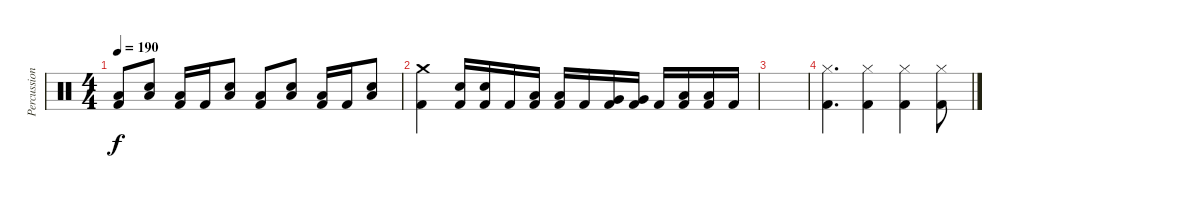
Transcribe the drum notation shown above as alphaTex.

\track ("Percussion" "Percussion") {instrument percussion}
\staff {score}
\articulation defaults
\ts (4 4)
\tempo 190
\clef neutral
\ks c
("Low Floor Tom (hit)" "Kick (hit) 2").8{dy f} ("Low Floor Tom (hit)" "Electric Snare (hit)").8 ("Low Floor Tom (hit)" "Kick (hit) 2").16 "Kick (hit) 2".16 ("Low Floor Tom (hit)" "Electric Snare (hit)").8 ("Low Floor Tom (hit)" "Kick (hit) 2").8 ("Low Floor Tom (hit)" "Electric Snare (hit)").8 ("Low Floor Tom (hit)" "Kick (hit) 2").16 "Kick (hit) 2".16 ("Low Floor Tom (hit)" "Electric Snare (hit)").8 |
("Crash medium (hit)" "Kick (hit) 2").4 ("Electric Snare (hit)" "Kick (hit) 2").16 ("Electric Snare (hit)" "Kick (hit) 2").16 "Kick (hit) 2".16 ("Low Tom (hit)" "Kick (hit) 2").16 ("Low Tom (hit)" "Kick (hit) 2").16 "Kick (hit) 2".16 ("Very Low Tom (hit)" "Kick (hit) 2").16 ("Very Low Tom (hit)" "Kick (hit) 2").16 "Kick (hit) 2".16 ("Low Floor Tom (hit)" "Kick (hit) 2").16 ("Low Floor Tom (hit)" "Kick (hit) 2").16 "Kick (hit) 2".16 |
|
("Hi-Hat (closed)" "Kick (hit) 2").4{d} ("Hi-Hat (closed)" "Kick (hit) 2").4 ("Hi-Hat (closed)" "Kick (hit) 2").4 ("Hi-Hat (closed)" "Kick (hit) 2").8
